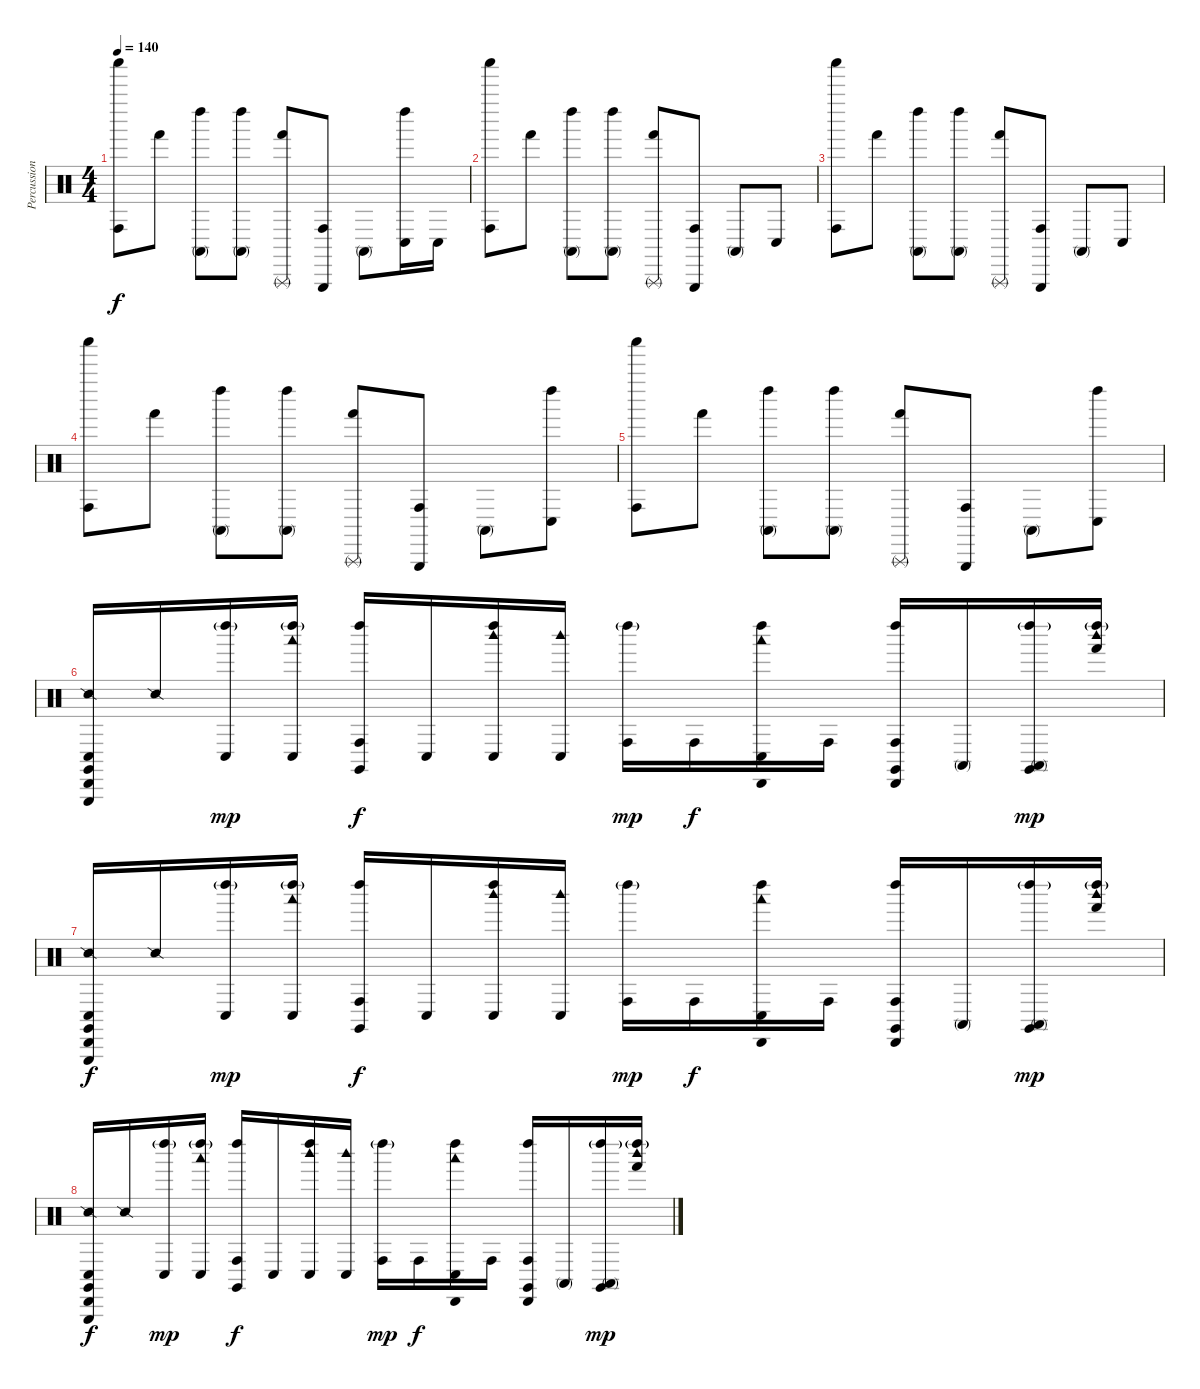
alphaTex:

\track ("Percussions" "Percussion") {instrument percussion}
\staff {score}
\articulation defaults
\ts (4 4)
\tempo 140
\clef neutral
\ks c
("Conga high (hit)" "Shaker (hit)").8{dy f} "Hand (hit)".8 ("Conga high (mute)" "Left Maraca (hit)").8 ("Conga high (mute)" "Left Maraca (hit)").8 ("Hand (hit)" "Triangle (rnute)").8 ("Conga high (hit)" "Triangle (hit)").8 "Conga high (mute)".8 ("Conga low (hit)" "Left Maraca (hit)").16 "Conga low (hit)".16 |
("Conga high (hit)" "Shaker (hit)").8 "Hand (hit)".8 ("Conga high (mute)" "Left Maraca (hit)").8 ("Conga high (mute)" "Left Maraca (hit)").8 ("Hand (hit)" "Triangle (rnute)").8 ("Conga high (hit)" "Triangle (hit)").8 "Conga high (mute)".8 "Conga low (hit)".8 |
("Conga high (hit)" "Shaker (hit)").8 "Hand (hit)".8 ("Conga high (mute)" "Left Maraca (hit)").8 ("Conga high (mute)" "Left Maraca (hit)").8 ("Hand (hit)" "Triangle (rnute)").8 ("Conga high (hit)" "Triangle (hit)").8 "Conga high (mute)".8 "Conga low (hit)".8 |
("Conga high (hit)" "Shaker (hit)").8 "Hand (hit)".8 ("Conga high (mute)" "Left Maraca (hit)").8 ("Conga high (mute)" "Left Maraca (hit)").8 ("Hand (hit)" "Triangle (rnute)").8 ("Conga high (hit)" "Triangle (hit)").8 "Conga high (mute)".8 ("Conga low (hit)" "Left Maraca (hit)").8 |
("Conga high (hit)" "Shaker (hit)").8 "Hand (hit)".8 ("Conga high (mute)" "Left Maraca (hit)").8 ("Conga high (mute)" "Left Maraca (hit)").8 ("Hand (hit)" "Triangle (rnute)").8 ("Conga high (hit)" "Triangle (hit)").8 "Conga high (mute)".8 ("Conga low (hit)" "Left Maraca (hit)").8 |
("Conga low (hit)" "Snare (side stick) 2" "Claves (hit)" "Cabasa (hit)" "Triangle (hit)").16 "Snare (side stick) 2".16 ("Conga low (hit)" "Left Maraca (hit)"{g}).16{dy mp} ("Conga low (hit)" "Woodblock low (hit)" "Left Maraca (hit)"{g}).16 ("Conga high (hit)" "Claves (hit)" "Left Maraca (hit)").16{dy f} "Conga low (hit)".16 ("Conga low (hit)" "Woodblock high (hit)" "Left Maraca (hit)").16 ("Conga low (hit)" "Woodblock high (hit)").16 ("Conga high (hit)" "Left Maraca (hit)"{g}).16{dy mp} "Conga high (hit)".16{dy f} ("Conga low (hit)" "Woodblock low (hit)" "Cabasa (hit)" "Left Maraca (hit)").16 "Conga high (hit)".16 ("Conga high (hit)" "Claves (hit)" "Cabasa (hit)" "Left Maraca (hit)").16 "Conga high (mute)".16 ("Conga high (mute)" "Claves (hit)" "Left Maraca (hit)"{g}).16{dy mp} ("Hand (hit)" "Woodblock high (hit)" "Left Maraca (hit)"{g}).16 |
("Conga low (hit)" "Snare (side stick) 2" "Claves (hit)" "Cabasa (hit)" "Triangle (hit)").16{dy f} "Snare (side stick) 2".16 ("Conga low (hit)" "Left Maraca (hit)"{g}).16{dy mp} ("Conga low (hit)" "Woodblock low (hit)" "Left Maraca (hit)"{g}).16 ("Conga high (hit)" "Claves (hit)" "Left Maraca (hit)").16{dy f} "Conga low (hit)".16 ("Conga low (hit)" "Woodblock high (hit)" "Left Maraca (hit)").16 ("Conga low (hit)" "Woodblock high (hit)").16 ("Conga high (hit)" "Left Maraca (hit)"{g}).16{dy mp} "Conga high (hit)".16{dy f} ("Conga low (hit)" "Woodblock low (hit)" "Cabasa (hit)" "Left Maraca (hit)").16 "Conga high (hit)".16 ("Conga high (hit)" "Claves (hit)" "Cabasa (hit)" "Left Maraca (hit)").16 "Conga high (mute)".16 ("Conga high (mute)" "Claves (hit)" "Left Maraca (hit)"{g}).16{dy mp} ("Hand (hit)" "Woodblock high (hit)" "Left Maraca (hit)"{g}).16 |
("Conga low (hit)" "Snare (side stick) 2" "Claves (hit)" "Cabasa (hit)" "Triangle (hit)").16{dy f} "Snare (side stick) 2".16 ("Conga low (hit)" "Left Maraca (hit)"{g}).16{dy mp} ("Conga low (hit)" "Woodblock low (hit)" "Left Maraca (hit)"{g}).16 ("Conga high (hit)" "Claves (hit)" "Left Maraca (hit)").16{dy f} "Conga low (hit)".16 ("Conga low (hit)" "Woodblock high (hit)" "Left Maraca (hit)").16 ("Conga low (hit)" "Woodblock high (hit)").16 ("Conga high (hit)" "Left Maraca (hit)"{g}).16{dy mp} "Conga high (hit)".16{dy f} ("Conga low (hit)" "Woodblock low (hit)" "Cabasa (hit)" "Left Maraca (hit)").16 "Conga high (hit)".16 ("Conga high (hit)" "Claves (hit)" "Cabasa (hit)" "Left Maraca (hit)").16 "Conga high (mute)".16 ("Conga high (mute)" "Claves (hit)" "Left Maraca (hit)"{g}).16{dy mp} ("Hand (hit)" "Woodblock high (hit)" "Left Maraca (hit)"{g}).16
